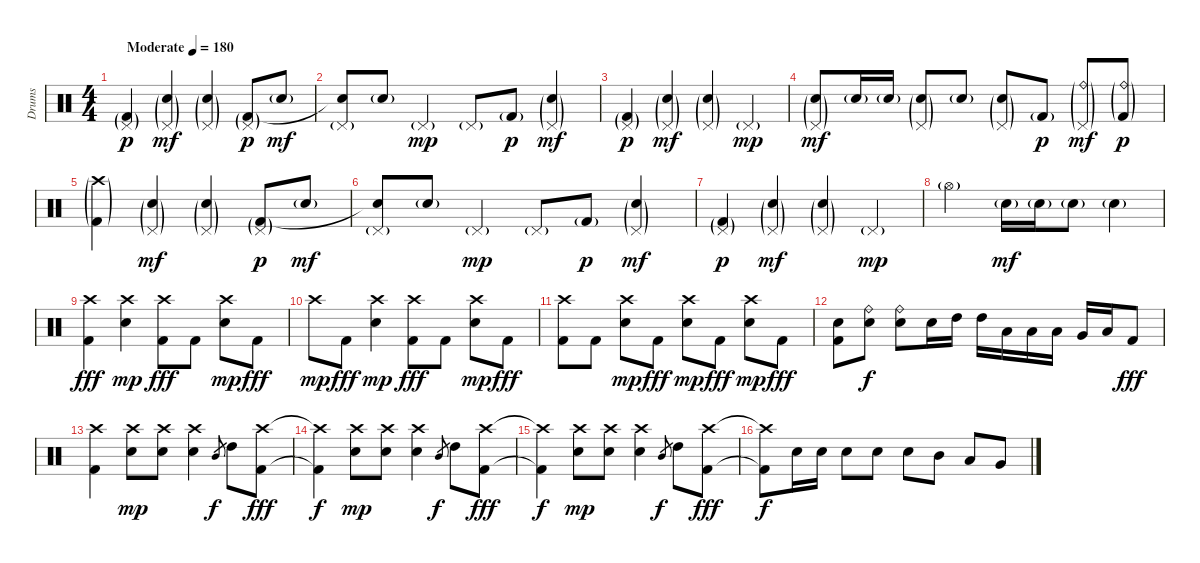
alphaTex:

\track ("Drums" "Drums") {instrument percussion}
\staff {score}
\articulation defaults
\ts (4 4)
\tempo (180 "Moderate")
\clef neutral
\ks c
("Pedal Hi-Hat (hit)"{g} "Kick (hit) 2"{g}).4{dy p} ("Pedal Hi-Hat (hit)"{g} "Electric Snare (hit)"{g}).4{dy mf} ("Pedal Hi-Hat (hit)"{g} "Electric Snare (hit)"{g}).4 ("Pedal Hi-Hat (hit)"{g} "Kick (hit) 2"{g}).8{dy p} "Electric Snare (hit)"{g}.8{dy mf} |
("Pedal Hi-Hat (hit)"{g} "Electric Snare (hit)"{t}).8 "Electric Snare (hit)"{g}.8 "Pedal Hi-Hat (hit)"{g}.4{dy mp} "Pedal Hi-Hat (hit)"{g}.8 "Kick (hit) 2"{g}.8{dy p} ("Pedal Hi-Hat (hit)"{g} "Electric Snare (hit)"{g}).4{dy mf} |
("Pedal Hi-Hat (hit)"{g} "Kick (hit) 2"{g}).4{dy p} ("Pedal Hi-Hat (hit)"{g} "Electric Snare (hit)"{g}).4{dy mf} ("Pedal Hi-Hat (hit)"{g} "Electric Snare (hit)"{g}).4 "Pedal Hi-Hat (hit)"{g}.4{dy mp} |
("Pedal Hi-Hat (hit)"{g} "Electric Snare (hit)"{g}).8{dy mf} "Electric Snare (hit)"{g}.16 "Electric Snare (hit)"{g}.16 ("Pedal Hi-Hat (hit)"{g} "Electric Snare (hit)"{g}).8 "Electric Snare (hit)"{g}.8 ("Pedal Hi-Hat (hit)"{g} "Electric Snare (hit)"{g}).8 "Kick (hit) 2"{g}.8{dy p} ("Pedal Hi-Hat (hit)"{g} "Ride (bell)"{g}).8{dy mf} ("Ride (bell)"{g} "Kick (hit) 2"{g}).8{dy p} |
("Crash high (hit)"{g} "Kick (hit) 2"{g}).4 ("Pedal Hi-Hat (hit)"{g} "Electric Snare (hit)"{g}).4{dy mf} ("Pedal Hi-Hat (hit)"{g} "Electric Snare (hit)"{g}).4 ("Pedal Hi-Hat (hit)"{g} "Kick (hit) 2"{g}).8{dy p} "Electric Snare (hit)"{g}.8{dy mf} |
("Pedal Hi-Hat (hit)"{g} "Electric Snare (hit)"{t}).8 "Electric Snare (hit)"{g}.8 "Pedal Hi-Hat (hit)"{g}.4{dy mp} "Pedal Hi-Hat (hit)"{g}.8 "Kick (hit) 2"{g}.8{dy p} ("Pedal Hi-Hat (hit)"{g} "Electric Snare (hit)"{g}).4{dy mf} |
("Pedal Hi-Hat (hit)"{g} "Kick (hit) 2"{g}).4{dy p} ("Pedal Hi-Hat (hit)"{g} "Electric Snare (hit)"{g}).4{dy mf} ("Pedal Hi-Hat (hit)"{g} "Electric Snare (hit)"{g}).4 "Pedal Hi-Hat (hit)"{g}.4{dy mp} |
"Hi-Hat (open)"{g}.2 "Electric Snare (hit)"{g}.16{dy mf} "Electric Snare (hit)"{g}.16 "Electric Snare (hit)"{g}.8 "Electric Snare (hit)"{g}.4 |
("Crash high (hit)" "Kick (hit) 2").4{dy fff} ("Crash high (hit)" "Electric Snare (hit)").4{dy mp} ("Crash high (hit)" "Kick (hit) 2").8{dy fff} "Kick (hit) 2".8 ("Crash high (hit)" "Electric Snare (hit)").8{dy mp} "Kick (hit) 2".8{dy fff} |
"Crash high (hit)".8{dy mp} "Kick (hit) 2".8{dy fff} ("Crash high (hit)" "Electric Snare (hit)").4{dy mp} ("Crash high (hit)" "Kick (hit) 2").8{dy fff} "Kick (hit) 2".8 ("Crash high (hit)" "Electric Snare (hit)").8{dy mp} "Kick (hit) 2".8{dy fff} |
("Crash high (hit)" "Kick (hit) 2").8 "Kick (hit) 2".8 ("Crash high (hit)" "Electric Snare (hit)").8{dy mp} "Kick (hit) 2".8{dy fff} ("Crash high (hit)" "Electric Snare (hit)").8{dy mp} "Kick (hit) 2".8{dy fff} ("Crash high (hit)" "Electric Snare (hit)").8{dy mp} "Kick (hit) 2".8{dy fff} |
("Electric Snare (hit)" "Kick (hit) 2").8 ("Ride (bell)" "Electric Snare (hit)").8{dy f} ("Ride (bell)" "Electric Snare (hit)").8 "Electric Snare (hit)".16 "High Tom (hit)".16 "High Tom (hit)".16 "Low Tom (hit)".16 "Low Tom (hit)".16 "Low Tom (hit)".16 "Very Low Tom (hit)".16 "Low Floor Tom (hit)".16 "Kick (hit) 2".8{dy fff} |
("Crash high (hit)" "Kick (hit) 2").4 ("Crash high (hit)" "Electric Snare (hit)").8{dy mp} ("Crash high (hit)" "Electric Snare (hit)").8 ("Crash high (hit)" "Electric Snare (hit)").4 "Mid Tom (hit)".8{gr dy f} "High Tom (hit)".8 ("Crash high (hit)" "Kick (hit) 2").8{dy fff} |
("Crash high (hit)"{t} "Kick (hit) 2"{t}).4{dy f} ("Crash high (hit)" "Electric Snare (hit)").8{dy mp} ("Crash high (hit)" "Electric Snare (hit)").8 ("Crash high (hit)" "Electric Snare (hit)").4 "Mid Tom (hit)".8{gr dy f} "High Tom (hit)".8 ("Crash high (hit)" "Kick (hit) 2").8{dy fff} |
("Crash high (hit)"{t} "Kick (hit) 2"{t}).4{dy f} ("Crash high (hit)" "Electric Snare (hit)").8{dy mp} ("Crash high (hit)" "Electric Snare (hit)").8 ("Crash high (hit)" "Electric Snare (hit)").4 "Mid Tom (hit)".8{gr dy f} "High Tom (hit)".8 ("Crash high (hit)" "Kick (hit) 2").8{dy fff} |
("Crash high (hit)"{t} "Kick (hit) 2"{t}).8{dy f} "Electric Snare (hit)".16 "Electric Snare (hit)".16 "Electric Snare (hit)".8 "Electric Snare (hit)".8 "Electric Snare (hit)".8 "Mid Tom (hit)".8 "Low Tom (hit)".8 "Very Low Tom (hit)".8
